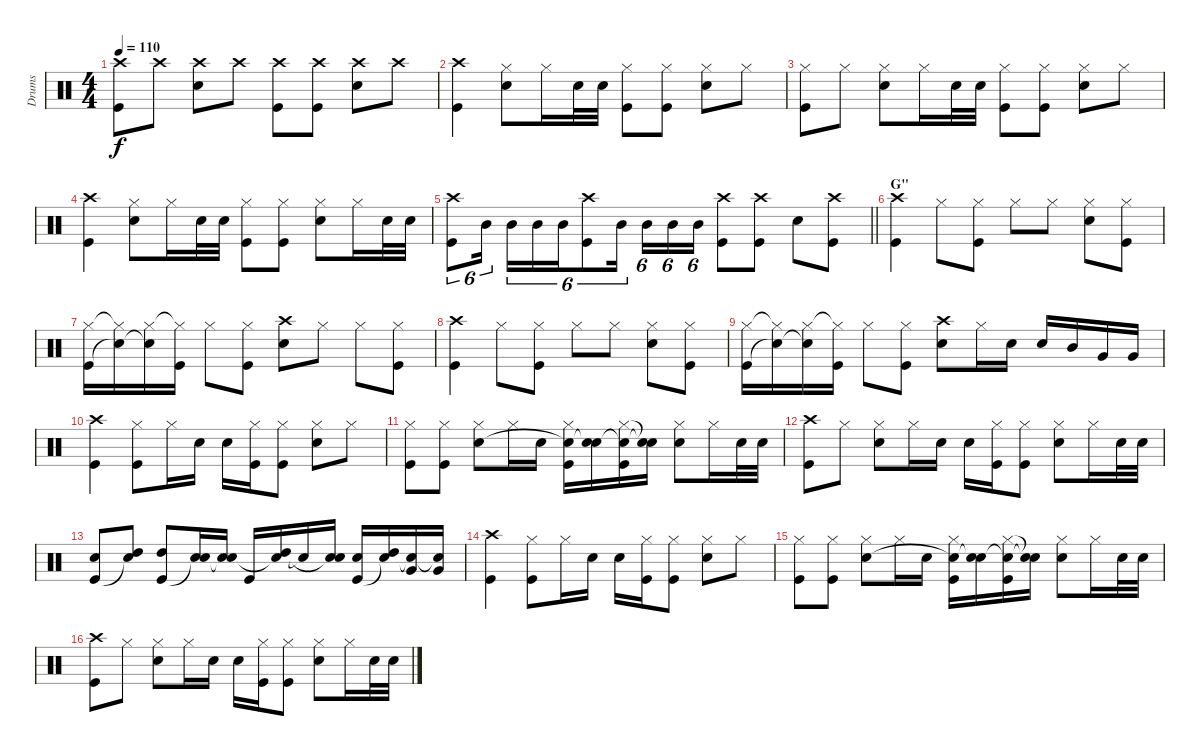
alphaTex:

\track ("Drums" "Drums") {instrument percussion}
\staff {score}
\articulation defaults
\ts (4 4)
\tempo 110
\clef neutral
\ks c
("Crash high (hit)" "Kick (hit)").8{dy f} "Crash high (hit)".8 ("Crash high (hit)" "Snare (hit) 2").8 "Crash high (hit)".8 ("Crash high (hit)" "Kick (hit)").8 ("Crash high (hit)" "Kick (hit)").8 ("Crash high (hit)" "Snare (hit) 2").8 "Crash high (hit)".8 |
("Crash high (hit)" "Kick (hit)").4 ("Hi-Hat (closed)" "Snare (hit) 2").8 "Hi-Hat (closed)".16 "Snare (hit) 2".32 "Snare (hit) 2".32 ("Hi-Hat (closed)" "Kick (hit)").8 ("Hi-Hat (closed)" "Kick (hit)").8 ("Hi-Hat (closed)" "Snare (hit) 2").8 "Hi-Hat (closed)".8 |
("Hi-Hat (closed)" "Kick (hit)").8 "Hi-Hat (closed)".8 ("Hi-Hat (closed)" "Snare (hit) 2").8 "Hi-Hat (closed)".16 "Snare (hit) 2".32 "Snare (hit) 2".32 ("Hi-Hat (closed)" "Kick (hit)").8 ("Hi-Hat (closed)" "Kick (hit)").8 ("Hi-Hat (closed)" "Snare (hit) 2").8 "Hi-Hat (closed)".8 |
("Crash high (hit)" "Kick (hit)").4 ("Hi-Hat (closed)" "Snare (hit) 2").8 "Hi-Hat (closed)".16 "Snare (hit) 2".32 "Snare (hit) 2".32 ("Hi-Hat (closed)" "Kick (hit)").8 ("Hi-Hat (closed)" "Kick (hit)").8 ("Hi-Hat (closed)" "Snare (hit) 2").8 "Hi-Hat (closed)".16 "Snare (hit) 2".32 "Snare (hit) 2".32 |
\barLineRight lightlight
("Crash high (hit)" "Kick (hit)").8{tu (6 4)} "Mid Tom (hit)".16{tu (6 4) beam splitsecondary} "Mid Tom (hit)".16{tu (6 4)} "Mid Tom (hit)".16{tu (6 4)} "Mid Tom (hit)".16{tu (6 4)} ("Crash high (hit)" "Kick (hit)").8{tu (6 4)} "Mid Tom (hit)".16{tu (6 4) beam splitsecondary} "Mid Tom (hit)".16{tu (6 4)} "Mid Tom (hit)".16{tu (6 4)} "Mid Tom (hit)".16{tu (6 4)} ("Crash high (hit)" "Kick (hit)").8 ("Crash high (hit)" "Kick (hit)").8 "Snare (hit) 2".8 ("Crash high (hit)" "Kick (hit)").8 |
\section ("" "G\"")
("Crash high (hit)" "Kick (hit)").4 "Hi-Hat (closed)".8 ("Hi-Hat (closed)" "Kick (hit)").8 "Hi-Hat (closed)".8 "Hi-Hat (closed)".8 ("Hi-Hat (closed)" "Snare (hit) 2").8 ("Hi-Hat (closed)" "Kick (hit)").8 |
("Hi-Hat (closed)" "Kick (hit)").16 ("Hi-Hat (closed)"{t} "Snare (hit)"{t}).16 ("Hi-Hat (closed)" "Snare (hit)"{t}).16 ("Hi-Hat (closed)"{t} "Kick (hit)").16 "Hi-Hat (closed)".8 ("Hi-Hat (closed)" "Kick (hit)").8 ("Crash high (hit)" "Snare (hit) 2").8 "Hi-Hat (closed)".8 "Hi-Hat (closed)".8 ("Hi-Hat (closed)" "Kick (hit)").8 |
("Crash high (hit)" "Kick (hit)").4 "Hi-Hat (closed)".8 ("Hi-Hat (closed)" "Kick (hit)").8 "Hi-Hat (closed)".8 "Hi-Hat (closed)".8 ("Hi-Hat (closed)" "Snare (hit) 2").8 ("Hi-Hat (closed)" "Kick (hit)").8 |
("Hi-Hat (closed)" "Kick (hit)").16 ("Hi-Hat (closed)"{t} "Snare (hit)"{t}).16 ("Hi-Hat (closed)" "Snare (hit)"{t}).16 ("Hi-Hat (closed)"{t} "Kick (hit)").16 "Hi-Hat (closed)".8 ("Hi-Hat (closed)" "Kick (hit)").8 ("Crash high (hit)" "Snare (hit) 2").8 "Hi-Hat (closed)".16 "Snare (hit) 2".16 "Snare (hit) 2".16 "Mid Tom (hit)".16 "Very Low Tom (hit)".16 "Very Low Tom (hit)".16 |
("Crash high (hit)" "Kick (hit)").4 ("Hi-Hat (closed)" "Kick (hit)").8 "Hi-Hat (closed)".16 "Snare (hit) 2".16 "Snare (hit) 2".16 ("Hi-Hat (closed)" "Kick (hit)").16 ("Hi-Hat (closed)" "Kick (hit)").8 ("Hi-Hat (closed)" "Snare (hit) 2").8 "Hi-Hat (closed)".8 |
("Hi-Hat (closed)" "Kick (hit)").8 ("Hi-Hat (closed)" "Kick (hit)").8 ("Hi-Hat (closed)" "Snare (hit) 2").8 "Hi-Hat (closed)".16 "Snare (hit) 2".16 ("Hi-Hat (closed)" "Snare (hit)"{t} "Kick (hit)").16 ("Snare (hit) 2" "Snare (hit)"{t}).16 ("Hi-Hat (closed)" "Snare (hit)"{t} "Kick (hit)").16 ("Snare (hit)"{t} "Snare (hit)"{t}).16 ("Hi-Hat (closed)" "Snare (hit) 2").8 "Hi-Hat (closed)".16 "Snare (hit) 2".32 "Snare (hit) 2".32 |
("Crash high (hit)" "Kick (hit)").8 "Hi-Hat (closed)".8 ("Hi-Hat (closed)" "Snare (hit) 2").8 "Hi-Hat (closed)".16 "Snare (hit) 2".16 "Snare (hit) 2".16 ("Hi-Hat (closed)" "Kick (hit)").16 ("Hi-Hat (closed)" "Kick (hit)").8 ("Hi-Hat (closed)" "Snare (hit) 2").8 "Hi-Hat (closed)".16 "Snare (hit) 2".32 "Snare (hit) 2".32 |
("Snare (hit) 2" "Kick (hit)").8 ("High Tom (hit)" "Snare (hit)"{t}).8 ("High Tom (hit)" "Kick (hit)").8 ("Snare (hit) 2" "Snare (hit)"{t}).16 ("Snare (hit) 2" "Snare (hit)"{t}).16 "Kick (hit)".16 ("High Tom (hit)" "Snare (hit)"{t}).16 "Snare (hit)"{t}.16 ("Snare (hit) 2" "Snare (hit)"{t}).16 ("Snare (hit) 2" "Kick (hit)").16 ("High Tom (hit)" "Snare (hit)"{t}).16 ("Very Low Tom (hit)" "Snare (hit)"{t}).16 ("Very Low Tom (hit)" "Snare (hit)"{t}).16 |
("Crash high (hit)" "Kick (hit)").4 ("Hi-Hat (closed)" "Kick (hit)").8 "Hi-Hat (closed)".16 "Snare (hit) 2".16 "Snare (hit) 2".16 ("Hi-Hat (closed)" "Kick (hit)").16 ("Hi-Hat (closed)" "Kick (hit)").8 ("Hi-Hat (closed)" "Snare (hit) 2").8 "Hi-Hat (closed)".8 |
("Hi-Hat (closed)" "Kick (hit)").8 ("Hi-Hat (closed)" "Kick (hit)").8 ("Hi-Hat (closed)" "Snare (hit) 2").8 "Hi-Hat (closed)".16 "Snare (hit) 2".16 ("Hi-Hat (closed)" "Snare (hit)"{t} "Kick (hit)").16 ("Snare (hit) 2" "Snare (hit)"{t}).16 ("Hi-Hat (closed)" "Snare (hit)"{t} "Kick (hit)").16 ("Snare (hit)"{t} "Snare (hit)"{t}).16 ("Hi-Hat (closed)" "Snare (hit) 2").8 "Hi-Hat (closed)".16 "Snare (hit) 2".32 "Snare (hit) 2".32 |
("Crash high (hit)" "Kick (hit)").8 "Hi-Hat (closed)".8 ("Hi-Hat (closed)" "Snare (hit) 2").8 "Hi-Hat (closed)".16 "Snare (hit) 2".16 "Snare (hit) 2".16 ("Hi-Hat (closed)" "Kick (hit)").16 ("Hi-Hat (closed)" "Kick (hit)").8 ("Hi-Hat (closed)" "Snare (hit) 2").8 "Hi-Hat (closed)".16 "Snare (hit) 2".32 "Snare (hit) 2".32
